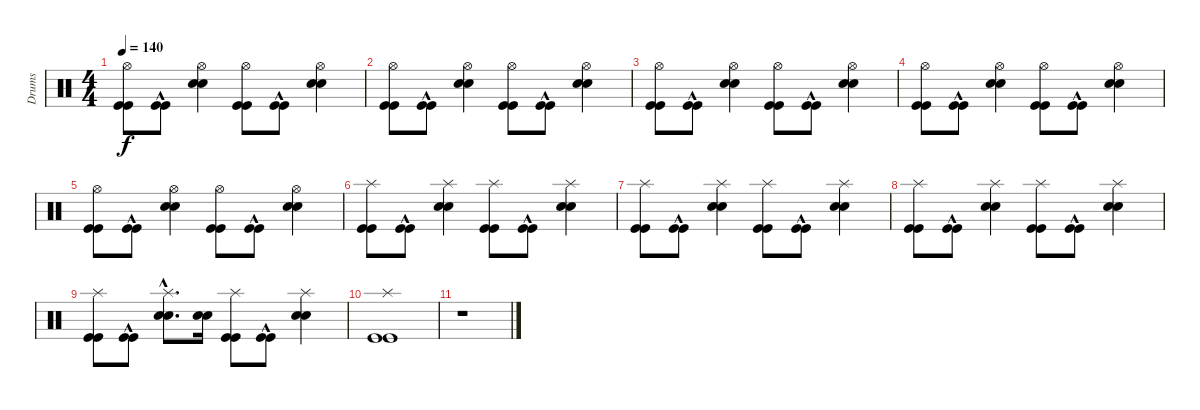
\track ("Drums" "Drums") {instrument percussion}
\staff {score}
\articulation defaults
\ts (4 4)
\tempo 140
\clef neutral
\ks c
("Kick (hit)" "Kick (hit)" "Hi-Hat (open)").8{dy f} ("Kick (hit)"{hac} "Kick (hit)"{hac}).8 ("Snare (hit) 2" "Snare (hit) 2" "Hi-Hat (open)").4 ("Kick (hit)" "Kick (hit)" "Hi-Hat (open)").8 ("Kick (hit)"{hac} "Kick (hit)"{hac}).8 ("Snare (hit) 2" "Snare (hit) 2" "Hi-Hat (open)").4 |
("Kick (hit)" "Kick (hit)" "Hi-Hat (open)").8 ("Kick (hit)"{hac} "Kick (hit)"{hac}).8 ("Snare (hit) 2" "Snare (hit) 2" "Hi-Hat (open)").4 ("Kick (hit)" "Kick (hit)" "Hi-Hat (open)").8 ("Kick (hit)"{hac} "Kick (hit)"{hac}).8 ("Snare (hit) 2" "Snare (hit) 2" "Hi-Hat (open)").4 |
("Kick (hit)" "Kick (hit)" "Hi-Hat (open)").8 ("Kick (hit)"{hac} "Kick (hit)"{hac}).8 ("Snare (hit) 2" "Snare (hit) 2" "Hi-Hat (open)").4 ("Kick (hit)" "Kick (hit)" "Hi-Hat (open)").8 ("Kick (hit)"{hac} "Kick (hit)"{hac}).8 ("Snare (hit) 2" "Snare (hit) 2" "Hi-Hat (open)").4 |
("Kick (hit)" "Kick (hit)" "Hi-Hat (open)").8 ("Kick (hit)"{hac} "Kick (hit)"{hac}).8 ("Snare (hit) 2" "Snare (hit) 2" "Hi-Hat (open)").4 ("Kick (hit)" "Kick (hit)" "Hi-Hat (open)").8 ("Kick (hit)"{hac} "Kick (hit)"{hac}).8 ("Snare (hit) 2" "Snare (hit) 2" "Hi-Hat (open)").4 |
("Kick (hit)" "Kick (hit)" "Hi-Hat (open)").8 ("Kick (hit)"{hac} "Kick (hit)"{hac}).8 ("Snare (hit) 2" "Snare (hit) 2" "Hi-Hat (open)").4 ("Kick (hit)" "Kick (hit)" "Hi-Hat (open)").8 ("Kick (hit)"{hac} "Kick (hit)"{hac}).8 ("Snare (hit) 2" "Snare (hit) 2" "Hi-Hat (open)").4 |
("Kick (hit)" "Kick (hit)" "Splash (hit)").8 ("Kick (hit)"{hac} "Kick (hit)"{hac}).8 ("Snare (hit) 2" "Snare (hit) 2" "Splash (hit)").4 ("Kick (hit)" "Kick (hit)" "Splash (hit)").8 ("Kick (hit)"{hac} "Kick (hit)"{hac}).8 ("Snare (hit) 2" "Snare (hit) 2" "Splash (hit)").4 |
("Kick (hit)" "Kick (hit)" "Splash (hit)").8 ("Kick (hit)"{hac} "Kick (hit)"{hac}).8 ("Snare (hit) 2" "Snare (hit) 2" "Splash (hit)").4 ("Kick (hit)" "Kick (hit)" "Splash (hit)").8 ("Kick (hit)"{hac} "Kick (hit)"{hac}).8 ("Snare (hit) 2" "Snare (hit) 2" "Splash (hit)").4 |
("Kick (hit)" "Kick (hit)" "Splash (hit)").8 ("Kick (hit)"{hac} "Kick (hit)"{hac}).8 ("Snare (hit) 2" "Snare (hit) 2" "Splash (hit)").4 ("Kick (hit)" "Kick (hit)" "Splash (hit)").8 ("Kick (hit)"{hac} "Kick (hit)"{hac}).8 ("Snare (hit) 2" "Snare (hit) 2" "Splash (hit)").4 |
("Kick (hit)" "Kick (hit)" "Splash (hit)").8 ("Kick (hit)"{hac} "Kick (hit)"{hac}).8 ("Snare (hit) 2"{hac} "Snare (hit) 2"{hac} "Splash (hit)").8{d} ("Snare (hit) 2" "Snare (hit) 2").16 ("Kick (hit)" "Kick (hit)" "Splash (hit)").8 ("Kick (hit)"{hac} "Kick (hit)"{hac}).8 ("Snare (hit) 2" "Snare (hit) 2" "Splash (hit)").4 |
("Kick (hit)" "Kick (hit)" "Splash (hit)").1 |
r.1
